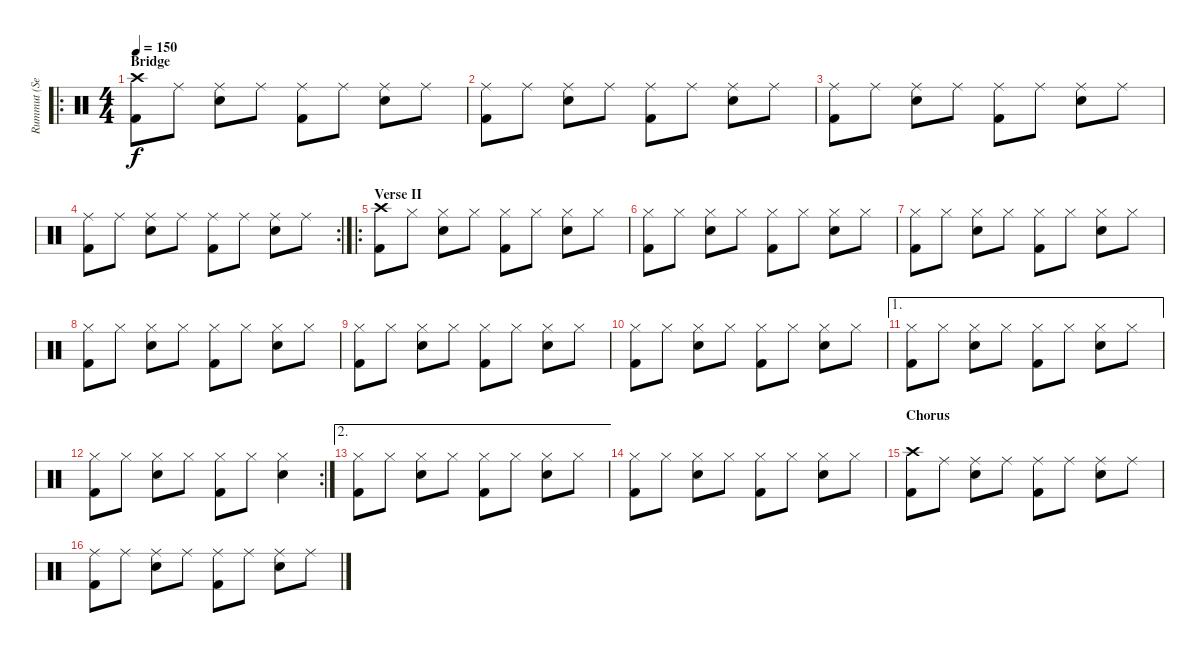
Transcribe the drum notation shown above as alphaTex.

\track ("Rummut (Seppo Pohjolainen)" "Rummut (Se") {instrument percussion}
\staff {score}
\articulation defaults
\ro
\ts (4 4)
\section ("" "Bridge")
\tempo 150
\clef neutral
\ks c
("Crash high (hit)" "Kick (hit) 2").8{dy f} "Ride (middle)".8 ("Ride (middle)" "Snare (hit) 2").8 "Ride (middle)".8 ("Ride (middle)" "Kick (hit) 2").8 "Ride (middle)".8 ("Ride (middle)" "Snare (hit) 2").8 "Ride (middle)".8 |
("Ride (middle)" "Kick (hit) 2").8 "Ride (middle)".8 ("Ride (middle)" "Snare (hit) 2").8 "Ride (middle)".8 ("Ride (middle)" "Kick (hit) 2").8 "Ride (middle)".8 ("Ride (middle)" "Snare (hit) 2").8 "Ride (middle)".8 |
("Ride (middle)" "Kick (hit) 2").8 "Ride (middle)".8 ("Ride (middle)" "Snare (hit) 2").8 "Ride (middle)".8 ("Ride (middle)" "Kick (hit) 2").8 "Ride (middle)".8 ("Ride (middle)" "Snare (hit) 2").8 "Ride (middle)".8 |
\rc 2
("Ride (middle)" "Kick (hit) 2").8 "Ride (middle)".8 ("Ride (middle)" "Snare (hit) 2").8 "Ride (middle)".8 ("Ride (middle)" "Kick (hit) 2").8 "Ride (middle)".8 ("Ride (middle)" "Snare (hit) 2").8 "Ride (middle)".8 |
\ro
\section ("" "Verse II")
("Crash high (hit)" "Kick (hit) 2").8 "Hi-Hat (closed)".8 ("Hi-Hat (closed)" "Snare (hit) 2").8 "Hi-Hat (closed)".8 ("Hi-Hat (closed)" "Kick (hit) 2").8 "Hi-Hat (closed)".8 ("Hi-Hat (closed)" "Snare (hit) 2").8 "Hi-Hat (closed)".8 |
("Hi-Hat (closed)" "Kick (hit) 2").8 "Hi-Hat (closed)".8 ("Hi-Hat (closed)" "Snare (hit) 2").8 "Hi-Hat (closed)".8 ("Hi-Hat (closed)" "Kick (hit) 2").8 "Hi-Hat (closed)".8 ("Hi-Hat (closed)" "Snare (hit) 2").8 "Hi-Hat (closed)".8 |
("Hi-Hat (closed)" "Kick (hit) 2").8 "Hi-Hat (closed)".8 ("Hi-Hat (closed)" "Snare (hit) 2").8 "Hi-Hat (closed)".8 ("Hi-Hat (closed)" "Kick (hit) 2").8 "Hi-Hat (closed)".8 ("Hi-Hat (closed)" "Snare (hit) 2").8 "Hi-Hat (closed)".8 |
("Hi-Hat (closed)" "Kick (hit) 2").8 "Hi-Hat (closed)".8 ("Hi-Hat (closed)" "Snare (hit) 2").8 "Hi-Hat (closed)".8 ("Hi-Hat (closed)" "Kick (hit) 2").8 "Hi-Hat (closed)".8 ("Hi-Hat (closed)" "Snare (hit) 2").8 "Hi-Hat (closed)".8 |
("Hi-Hat (closed)" "Kick (hit) 2").8 "Hi-Hat (closed)".8 ("Hi-Hat (closed)" "Snare (hit) 2").8 "Hi-Hat (closed)".8 ("Hi-Hat (closed)" "Kick (hit) 2").8 "Hi-Hat (closed)".8 ("Hi-Hat (closed)" "Snare (hit) 2").8 "Hi-Hat (closed)".8 |
("Hi-Hat (closed)" "Kick (hit) 2").8 "Hi-Hat (closed)".8 ("Hi-Hat (closed)" "Snare (hit) 2").8 "Hi-Hat (closed)".8 ("Hi-Hat (closed)" "Kick (hit) 2").8 "Hi-Hat (closed)".8 ("Hi-Hat (closed)" "Snare (hit) 2").8 "Hi-Hat (closed)".8 |
\ae 1
("Hi-Hat (closed)" "Kick (hit) 2").8 "Hi-Hat (closed)".8 ("Hi-Hat (closed)" "Snare (hit) 2").8 "Hi-Hat (closed)".8 ("Hi-Hat (closed)" "Kick (hit) 2").8 "Hi-Hat (closed)".8 ("Hi-Hat (closed)" "Snare (hit) 2").8 "Hi-Hat (closed)".8 |
\rc 2
("Hi-Hat (closed)" "Kick (hit) 2").8 "Hi-Hat (closed)".8 ("Hi-Hat (closed)" "Snare (hit) 2").8 "Hi-Hat (closed)".8 ("Hi-Hat (closed)" "Kick (hit) 2").8 "Hi-Hat (closed)".8 ("Hi-Hat (closed)" "Snare (hit) 2").4 |
\ae 2
("Hi-Hat (closed)" "Kick (hit) 2").8 "Hi-Hat (closed)".8 ("Hi-Hat (closed)" "Snare (hit) 2").8 "Hi-Hat (closed)".8 ("Hi-Hat (closed)" "Kick (hit) 2").8 "Hi-Hat (closed)".8 ("Hi-Hat (closed)" "Snare (hit) 2").8 "Hi-Hat (closed)".8 |
("Hi-Hat (closed)" "Kick (hit) 2").8 "Hi-Hat (closed)".8 ("Hi-Hat (closed)" "Snare (hit) 2").8 "Hi-Hat (closed)".8 ("Hi-Hat (closed)" "Kick (hit) 2").8 "Hi-Hat (closed)".8 ("Hi-Hat (closed)" "Snare (hit) 2").8 "Hi-Hat (closed)".8 |
\section ("" "Chorus")
("Crash high (hit)" "Kick (hit) 2").8 "Ride (middle)".8 ("Ride (middle)" "Snare (hit) 2").8 "Ride (middle)".8 ("Ride (middle)" "Kick (hit) 2").8 "Ride (middle)".8 ("Ride (middle)" "Snare (hit) 2").8 "Ride (middle)".8 |
("Ride (middle)" "Kick (hit) 2").8 "Ride (middle)".8 ("Ride (middle)" "Snare (hit) 2").8 "Ride (middle)".8 ("Ride (middle)" "Kick (hit) 2").8 "Ride (middle)".8 ("Ride (middle)" "Snare (hit) 2").8 "Ride (middle)".8
